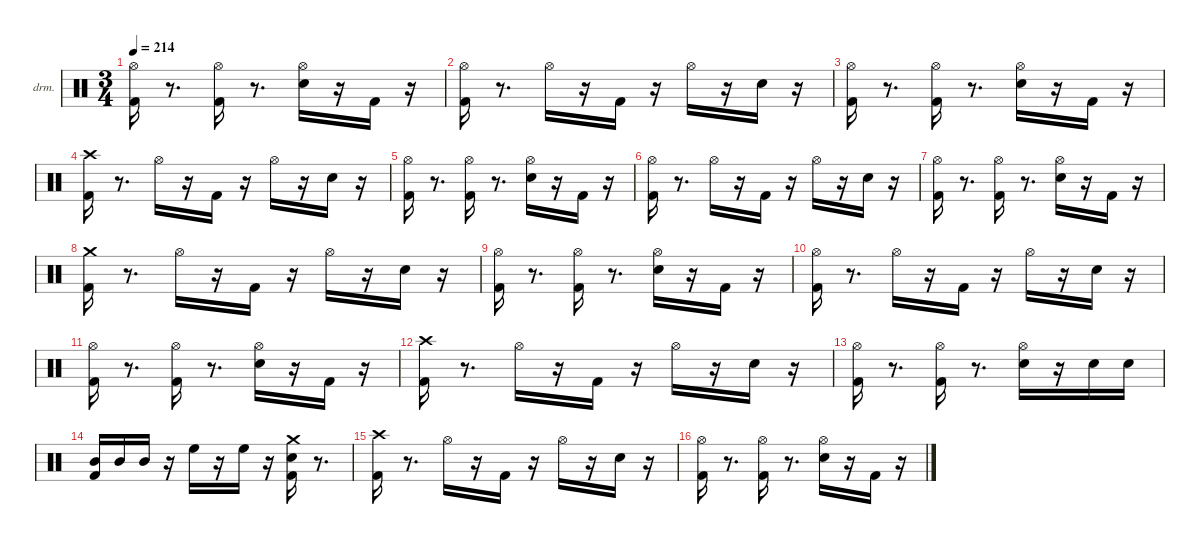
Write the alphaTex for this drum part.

\hideDynamics
\bracketExtendMode nobrackets
\firstSystemTrackNameOrientation horizontal
\otherSystemsTrackNameOrientation horizontal
\track ("EZdrummer 3" "drm.") {instrument percussion}
\staff {score}
\articulation defaults
\ts (3 4)
\tempo 214
\clef neutral
\ks aminor
("Kick (hit) 2" "Hi-Hat (open)"{acc #}).16{dy ff beam Down} r.8{d beam Down} ("Kick (hit) 2" "Hi-Hat (open)"{acc #}).16{dy f beam Down} r.8{d beam Down} ("Snare (hit) 2" "Hi-Hat (open)"{acc #}).16{beam Down} r.16{beam Down} "Kick (hit) 2".16{dy mp beam Up} r.16{beam Up} |
("Kick (hit) 2" "Hi-Hat (open)"{acc #}).16{dy fff beam Down} r.8{d beam Down} "Hi-Hat (open)"{acc #}.16{dy mf beam Down} r.16{beam Down} "Kick (hit) 2".16{dy ff beam Up} r.16{beam Up} "Hi-Hat (open)"{acc #}.16{dy f beam Down} r.16{beam Down} "Snare (hit) 2".16{dy ff beam Down} r.16{beam Down} |
("Kick (hit) 2" "Hi-Hat (open)"{acc #}).16{dy fff beam Down} r.8{d beam Down} ("Kick (hit) 2" "Hi-Hat (open)"{acc #}).16{dy ff beam Down} r.8{d beam Down} ("Snare (hit) 2" "Hi-Hat (open)"{acc #}).16{dy f beam Down} r.16{beam Down} "Kick (hit) 2".16{dy mp beam Up} r.16{beam Up} |
("Kick (hit) 2" "Crash high (hit)"{acc #}).16{dy fff beam Down} r.8{d beam Down} "Hi-Hat (open)"{acc #}.16{dy mf beam Down} r.16{beam Down} "Kick (hit) 2".16{dy ff beam Up} r.16{beam Up} "Hi-Hat (open)"{acc #}.16{dy f beam Down} r.16{beam Down} "Snare (hit) 2".16{dy ff beam Down} r.16{beam Down} |
("Kick (hit) 2" "Hi-Hat (open)"{acc #}).16{beam Down} r.8{d beam Down} ("Kick (hit) 2" "Hi-Hat (open)"{acc #}).16{dy f beam Down} r.8{d beam Down} ("Snare (hit) 2" "Hi-Hat (open)"{acc #}).16{beam Down} r.16{beam Down} "Kick (hit) 2".16{dy mp beam Up} r.16{beam Up} |
("Kick (hit) 2" "Hi-Hat (open)"{acc #}).16{dy fff beam Down} r.8{d beam Down} "Hi-Hat (open)"{acc #}.16{dy mf beam Down} r.16{beam Down} "Kick (hit) 2".16{dy ff beam Up} r.16{beam Up} "Hi-Hat (open)"{acc #}.16{dy f beam Down} r.16{beam Down} "Snare (hit) 2".16{dy ff beam Down} r.16{beam Down} |
("Kick (hit) 2" "Hi-Hat (open)"{acc #}).16{dy fff beam Down} r.8{d beam Down} ("Kick (hit) 2" "Hi-Hat (open)"{acc #}).16{dy f beam Down} r.8{d beam Down} ("Snare (hit) 2" "Hi-Hat (open)"{acc #}).16{beam Down} r.16{beam Down} "Kick (hit) 2".16{dy mp beam Up} r.16{beam Up} |
("Kick (hit) 2" "Crash medium (hit)").16{dy fff beam Down} r.8{d beam Down} "Hi-Hat (open)"{acc #}.16{dy mf beam Down} r.16{beam Down} "Kick (hit) 2".16{dy ff beam Up} r.16{beam Up} "Hi-Hat (open)"{acc #}.16{dy f beam Down} r.16{beam Down} "Snare (hit) 2".16{dy ff beam Down} r.16{beam Down} |
("Kick (hit) 2" "Hi-Hat (open)"{acc #}).16{beam Down} r.8{d beam Down} ("Kick (hit) 2" "Hi-Hat (open)"{acc #}).16{dy f beam Down} r.8{d beam Down} ("Snare (hit) 2" "Hi-Hat (open)"{acc #}).16{beam Down} r.16{beam Down} "Kick (hit) 2".16{dy mp beam Up} r.16{beam Up} |
("Kick (hit) 2" "Hi-Hat (open)"{acc #}).16{dy fff beam Down} r.8{d beam Down} "Hi-Hat (open)"{acc #}.16{dy mf beam Down} r.16{beam Down} "Kick (hit) 2".16{dy ff beam Up} r.16{beam Up} "Hi-Hat (open)"{acc #}.16{dy f beam Down} r.16{beam Down} "Snare (hit) 2".16{dy ff beam Down} r.16{beam Down} |
("Kick (hit) 2" "Hi-Hat (open)"{acc #}).16{dy fff beam Down} r.8{d beam Down} ("Kick (hit) 2" "Hi-Hat (open)"{acc #}).16{dy ff beam Down} r.8{d beam Down} ("Snare (hit) 2" "Hi-Hat (open)"{acc #}).16{dy f beam Down} r.16{beam Down} "Kick (hit) 2".16{dy mp beam Up} r.16{beam Up} |
("Kick (hit) 2" "Crash high (hit)"{acc #}).16{dy ff beam Down} r.8{d beam Down} "Hi-Hat (open)"{acc #}.16{dy f beam Down} r.16{beam Down} "Kick (hit) 2".16{dy ff beam Up} r.16{beam Up} "Hi-Hat (open)"{acc #}.16{beam Down} r.16{beam Down} "Snare (hit) 2".16{beam Down} r.16{beam Down} |
("Kick (hit) 2" "Hi-Hat (open)"{acc #}).16{dy fff beam Down} r.8{d beam Down} ("Kick (hit) 2" "Hi-Hat (open)"{acc #}).16{dy mf beam Down} r.8{d beam Down} ("Snare (hit) 2" "Hi-Hat (open)"{acc #}).16{dy fff beam Down} r.16{beam Down} "Snare (hit) 2".16{dy mf beam Down} "Snare (hit) 2".16{dy pp beam Down} |
("Kick (hit) 2" "Mid Tom (hit)").16{dy ff beam Up} "Mid Tom (hit)".16{dy mf beam Up} "Mid Tom (hit)".16{dy fff beam Up} r.16{beam Up} "High Floor Tom (hit)".16{dy ff beam Down} r.16{beam Down} "High Floor Tom (hit)".16{dy mf beam Down} r.16{beam Down} ("Kick (hit) 2" "Snare (hit) 2" "Crash medium (hit)").16{dy ff beam Down} r.8{d beam Down} |
("Kick (hit) 2" "Crash high (hit)"{acc #}).16{dy fff beam Down} r.8{d beam Down} "Hi-Hat (open)"{acc #}.16{dy mf beam Down} r.16{beam Down} "Kick (hit) 2".16{dy ff beam Up} r.16{beam Up} "Hi-Hat (open)"{acc #}.16{dy f beam Down} r.16{beam Down} "Snare (hit) 2".16{dy ff beam Down} r.16{beam Down} |
("Kick (hit) 2" "Hi-Hat (open)"{acc #}).16{beam Down} r.8{d beam Down} ("Kick (hit) 2" "Hi-Hat (open)"{acc #}).16{dy f beam Down} r.8{d beam Down} ("Snare (hit) 2" "Hi-Hat (open)"{acc #}).16{beam Down} r.16{beam Down} "Kick (hit) 2".16{dy mp beam Up} r.16{beam Up}
